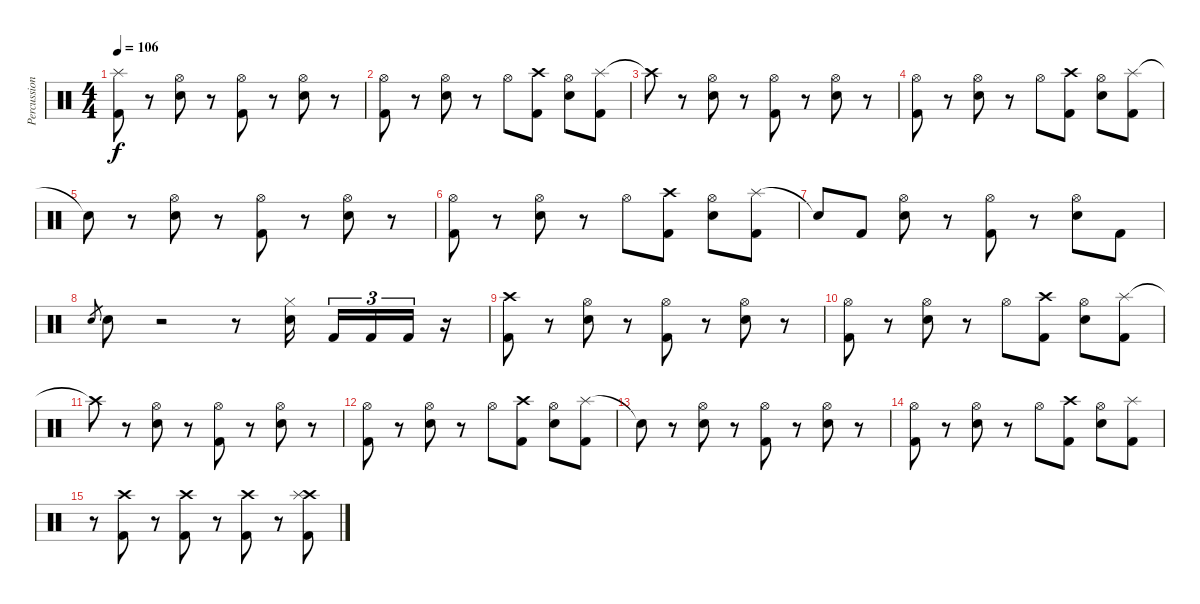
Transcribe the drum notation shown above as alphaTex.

\track ("Percussion" "Percussion") {instrument percussion}
\staff {score}
\articulation defaults
\ts (4 4)
\tempo 106
\clef neutral
\ks c
("Splash (hit)" "Kick (hit) 2").8{dy f} r.8 ("Hi-Hat (open)" "Snare (hit) 2").8 r.8 ("Hi-Hat (open)" "Kick (hit) 2").8 r.8 ("Hi-Hat (open)" "Snare (hit) 2").8 r.8 |
("Hi-Hat (open)" "Kick (hit) 2").8 r.8 ("Hi-Hat (open)" "Snare (hit) 2").8 r.8 "Hi-Hat (open)".8 ("Crash high (hit)" "Kick (hit) 2").8 ("Hi-Hat (open)" "Snare (hit) 2").8 ("Splash (hit)" "Kick (hit) 2").8 |
"Crash high (hit)"{t}.8 r.8 ("Hi-Hat (open)" "Snare (hit) 2").8 r.8 ("Hi-Hat (open)" "Kick (hit) 2").8 r.8 ("Hi-Hat (open)" "Snare (hit) 2").8 r.8 |
("Hi-Hat (open)" "Kick (hit) 2").8 r.8 ("Hi-Hat (open)" "Snare (hit) 2").8 r.8 "Hi-Hat (open)".8 ("Crash high (hit)" "Kick (hit) 2").8 ("Hi-Hat (open)" "Snare (hit) 2").8 ("Splash (hit)" "Kick (hit) 2").8 |
"Snare (hit)"{t}.8 r.8 ("Hi-Hat (open)" "Snare (hit) 2").8 r.8 ("Hi-Hat (open)" "Kick (hit) 2").8 r.8 ("Hi-Hat (open)" "Snare (hit) 2").8 r.8 |
("Hi-Hat (open)" "Kick (hit) 2").8 r.8 ("Hi-Hat (open)" "Snare (hit) 2").8 r.8 "Hi-Hat (open)".8 ("Crash high (hit)" "Kick (hit) 2").8 ("Hi-Hat (open)" "Snare (hit) 2").8 ("Splash (hit)" "Kick (hit) 2").8 |
"Snare (hit)"{t}.8 "Kick (hit) 2".8 ("Hi-Hat (open)" "Snare (hit) 2").8 r.8 ("Hi-Hat (open)" "Kick (hit) 2").8 r.8 ("Hi-Hat (open)" "Snare (hit) 2").8 "Kick (hit) 2".8 |
"Snare (hit) 2".8{gr} "Snare (hit) 2".8 r.2 r.8 ("Hi-Hat (closed)" "Snare (hit) 2").16 "Kick (hit) 2".16{tu (3 2)} "Kick (hit) 2".16{tu (3 2)} "Kick (hit) 2".16{tu (3 2)} r.16 |
("Crash high (hit)" "Kick (hit) 2").8 r.8 ("Hi-Hat (open)" "Snare (hit) 2").8 r.8 ("Hi-Hat (open)" "Kick (hit) 2").8 r.8 ("Hi-Hat (open)" "Snare (hit) 2").8 r.8 |
("Hi-Hat (open)" "Kick (hit) 2").8 r.8 ("Hi-Hat (open)" "Snare (hit) 2").8 r.8 "Hi-Hat (open)".8 ("Crash high (hit)" "Kick (hit) 2").8 ("Hi-Hat (open)" "Snare (hit) 2").8 ("Splash (hit)" "Kick (hit) 2").8 |
"Crash high (hit)"{t}.8 r.8 ("Hi-Hat (open)" "Snare (hit) 2").8 r.8 ("Hi-Hat (open)" "Kick (hit) 2").8 r.8 ("Hi-Hat (open)" "Snare (hit) 2").8 r.8 |
("Hi-Hat (open)" "Kick (hit) 2").8 r.8 ("Hi-Hat (open)" "Snare (hit) 2").8 r.8 "Hi-Hat (open)".8 ("Crash high (hit)" "Kick (hit) 2").8 ("Hi-Hat (open)" "Snare (hit) 2").8 ("Splash (hit)" "Kick (hit) 2").8 |
"Snare (hit)"{t}.8 r.8 ("Hi-Hat (open)" "Snare (hit) 2").8 r.8 ("Hi-Hat (open)" "Kick (hit) 2").8 r.8 ("Hi-Hat (open)" "Snare (hit) 2").8 r.8 |
("Hi-Hat (open)" "Kick (hit) 2").8 r.8 ("Hi-Hat (open)" "Snare (hit) 2").8 r.8 "Hi-Hat (open)".8 ("Crash high (hit)" "Kick (hit) 2").8 ("Hi-Hat (open)" "Snare (hit) 2").8 ("Splash (hit)" "Kick (hit) 2").8 |
r.8 ("Crash high (hit)" "Kick (hit) 2").8 r.8 ("Crash high (hit)" "Kick (hit) 2").8 r.8 ("Crash high (hit)" "Kick (hit) 2").8 r.8 ("Crash high (hit)" "Splash (hit)" "Kick (hit) 2").8
